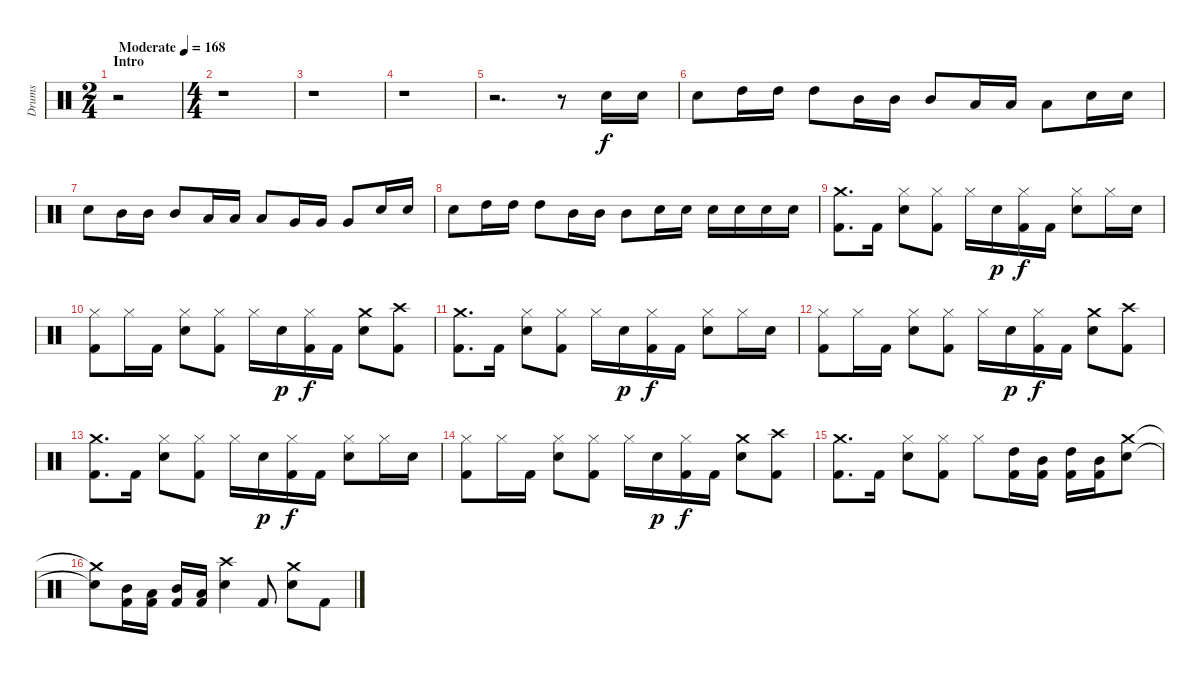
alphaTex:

\bracketExtendMode groupsimilarinstruments
\track ("Drumkit" "Drums") {solo instrument percussion}
\staff {score}
\articulation defaults
\ts (2 4)
\beaming (8 1 1 1 1)
\section ("" "Intro")
\tempo (168 "Moderate")
\clef neutral
\ks c
r.2{dy f} |
\ts (4 4)
\beaming (8 2 2 2 2)
r.1 |
r.1 |
r.1 |
r.2{d} r.8 "Snare (hit) 2".16 "Snare (hit) 2".16 |
"Snare (hit) 2".8 "High Tom (hit)".16 "High Tom (hit)".16 "High Tom (hit)".8 "Mid Tom (hit)".16 "Mid Tom (hit)".16 "Mid Tom (hit)".8 "Low Tom (hit)".16 "Low Tom (hit)".16 "Low Tom (hit)".8 "Snare (hit) 2".16 "Snare (hit) 2".16 |
"Snare (hit) 2".8 "Mid Tom (hit)".16 "Mid Tom (hit)".16 "Mid Tom (hit)".8 "Low Tom (hit)".16 "Low Tom (hit)".16 "Low Tom (hit)".8 "Very Low Tom (hit)".16 "Very Low Tom (hit)".16 "Very Low Tom (hit)".8 "Snare (hit) 2".16 "Snare (hit) 2".16 |
"Snare (hit) 2".8 "High Tom (hit)".16 "High Tom (hit)".16 "High Tom (hit)".8 "Mid Tom (hit)".16 "Mid Tom (hit)".16 "Mid Tom (hit)".8 "Snare (hit) 2".16 "Snare (hit) 2".16 "Snare (hit) 2".16 "Snare (hit) 2".16 "Snare (hit) 2".16 "Snare (hit) 2".16 |
("Crash medium (hit)" "Kick (hit) 2").8{d} "Kick (hit) 2".16 ("Hi-Hat (closed)" "Snare (hit) 2").8 ("Hi-Hat (closed)" "Kick (hit) 2").8 "Hi-Hat (closed)".16 "Snare (hit) 2".16{dy p} ("Hi-Hat (closed)" "Kick (hit) 2").16{dy f} "Kick (hit) 2".16 ("Hi-Hat (closed)" "Snare (hit) 2").8 "Hi-Hat (closed)".16 "Snare (hit) 2".16 |
("Hi-Hat (closed)" "Kick (hit) 2").8 "Hi-Hat (closed)".16 "Kick (hit) 2".16 ("Hi-Hat (closed)" "Snare (hit) 2").8 ("Hi-Hat (closed)" "Kick (hit) 2").8 "Hi-Hat (closed)".16 "Snare (hit) 2".16{dy p} ("Hi-Hat (closed)" "Kick (hit) 2").16{dy f} "Kick (hit) 2".16 ("Crash medium (hit)" "Snare (hit) 2").8 ("Crash high (hit)" "Kick (hit) 2").8 |
("Crash medium (hit)" "Kick (hit) 2").8{d} "Kick (hit) 2".16 ("Hi-Hat (closed)" "Snare (hit) 2").8 ("Hi-Hat (closed)" "Kick (hit) 2").8 "Hi-Hat (closed)".16 "Snare (hit) 2".16{dy p} ("Hi-Hat (closed)" "Kick (hit) 2").16{dy f} "Kick (hit) 2".16 ("Hi-Hat (closed)" "Snare (hit) 2").8 "Hi-Hat (closed)".16 "Snare (hit) 2".16 |
("Hi-Hat (closed)" "Kick (hit) 2").8 "Hi-Hat (closed)".16 "Kick (hit) 2".16 ("Hi-Hat (closed)" "Snare (hit) 2").8 ("Hi-Hat (closed)" "Kick (hit) 2").8 "Hi-Hat (closed)".16 "Snare (hit) 2".16{dy p} ("Hi-Hat (closed)" "Kick (hit) 2").16{dy f} "Kick (hit) 2".16 ("Crash medium (hit)" "Snare (hit) 2").8 ("Crash high (hit)" "Kick (hit) 2").8 |
("Crash medium (hit)" "Kick (hit) 2").8{d} "Kick (hit) 2".16 ("Hi-Hat (closed)" "Snare (hit) 2").8 ("Hi-Hat (closed)" "Kick (hit) 2").8 "Hi-Hat (closed)".16 "Snare (hit) 2".16{dy p} ("Hi-Hat (closed)" "Kick (hit) 2").16{dy f} "Kick (hit) 2".16 ("Hi-Hat (closed)" "Snare (hit) 2").8 "Hi-Hat (closed)".16 "Snare (hit) 2".16 |
("Hi-Hat (closed)" "Kick (hit) 2").8 "Hi-Hat (closed)".16 "Kick (hit) 2".16 ("Hi-Hat (closed)" "Snare (hit) 2").8 ("Hi-Hat (closed)" "Kick (hit) 2").8 "Hi-Hat (closed)".16 "Snare (hit) 2".16{dy p} ("Hi-Hat (closed)" "Kick (hit) 2").16{dy f} "Kick (hit) 2".16 ("Crash medium (hit)" "Snare (hit) 2").8 ("Crash high (hit)" "Kick (hit) 2").8 |
("Crash medium (hit)" "Kick (hit) 2").8{d} "Kick (hit) 2".16 ("Hi-Hat (closed)" "Snare (hit) 2").8 ("Hi-Hat (closed)" "Kick (hit) 2").8 "Hi-Hat (closed)".8 ("High Tom (hit)" "Kick (hit) 2").16 ("Mid Tom (hit)" "Kick (hit) 2").16 ("High Tom (hit)" "Kick (hit) 2").16 ("Mid Tom (hit)" "Kick (hit) 2").16 ("Crash medium (hit)" "Snare (hit) 2").8 |
("Crash medium (hit)"{t} "Snare (hit) 2"{t}).8 ("Mid Tom (hit)" "Kick (hit) 2").16 ("Low Tom (hit)" "Kick (hit) 2").16 ("Mid Tom (hit)" "Kick (hit) 2").16 ("Low Tom (hit)" "Kick (hit) 2").16 ("Crash high (hit)" "Snare (hit) 2").4 "Kick (hit) 2".8 ("Crash medium (hit)" "Snare (hit) 2").8 "Kick (hit) 2".8
